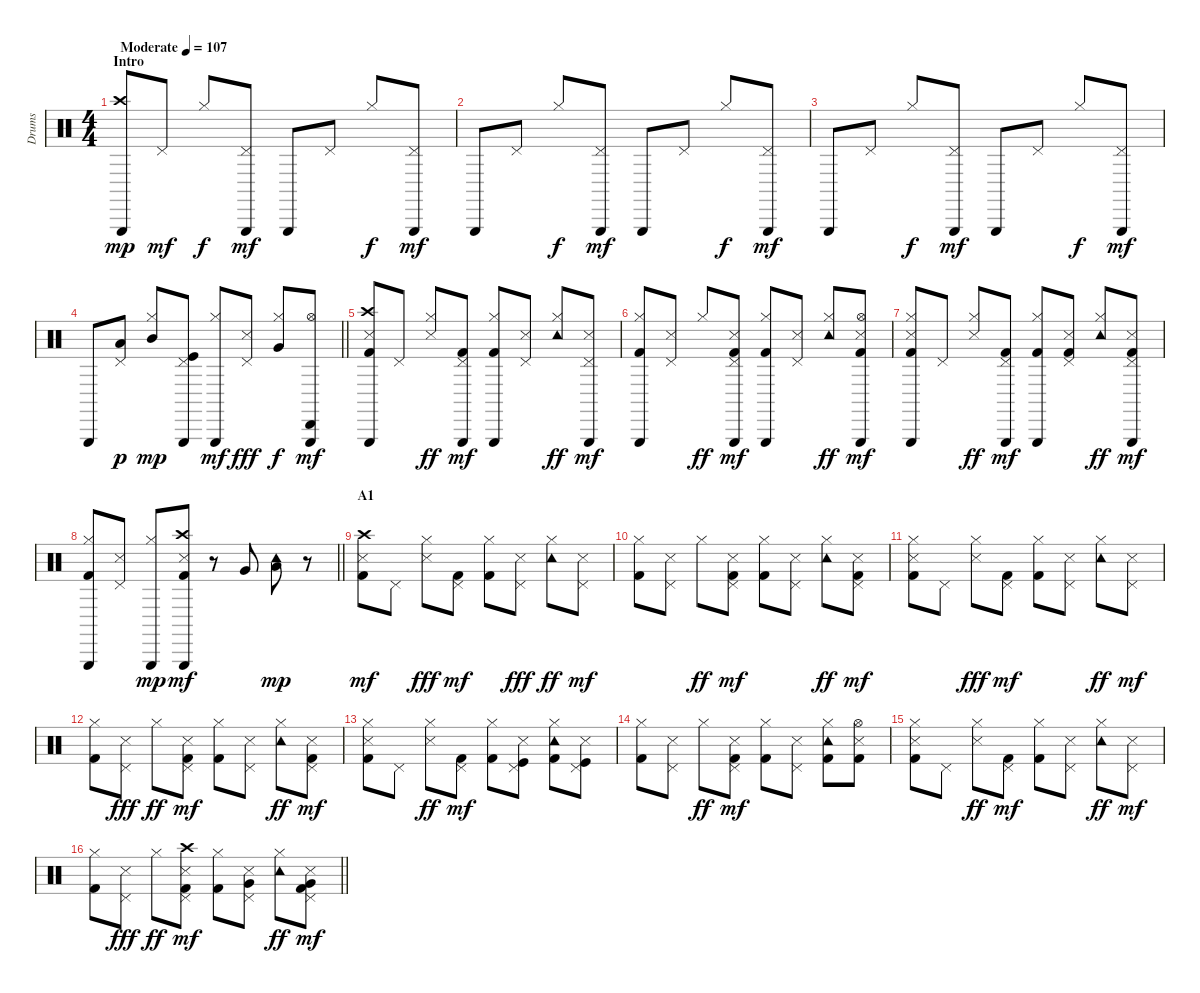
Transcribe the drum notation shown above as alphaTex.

\track ("Drums" "Drums") {instrument percussion}
\staff {score}
\articulation defaults
\ts (4 4)
\section ("" "Intro")
\tempo (107 "Moderate")
\clef neutral
\ks c
("Triangle (hit)" "Crash high (hit)").8{dy mp} "Pedal Hi-Hat (hit)".8{dy mf} "Hi-Hat (closed)".8{dy f} ("Pedal Hi-Hat (hit)" "Triangle (hit)").8{dy mf} "Triangle (hit)".8 "Pedal Hi-Hat (hit)".8 "Hi-Hat (closed)".8{dy f} ("Pedal Hi-Hat (hit)" "Triangle (hit)").8{dy mf} |
"Triangle (hit)".8 "Pedal Hi-Hat (hit)".8 "Hi-Hat (closed)".8{dy f} ("Pedal Hi-Hat (hit)" "Triangle (hit)").8{dy mf} "Triangle (hit)".8 "Pedal Hi-Hat (hit)".8 "Hi-Hat (closed)".8{dy f} ("Pedal Hi-Hat (hit)" "Triangle (hit)").8{dy mf} |
"Triangle (hit)".8 "Pedal Hi-Hat (hit)".8 "Hi-Hat (closed)".8{dy f} ("Pedal Hi-Hat (hit)" "Triangle (hit)").8{dy mf} "Triangle (hit)".8 "Pedal Hi-Hat (hit)".8 "Hi-Hat (closed)".8{dy f} ("Pedal Hi-Hat (hit)" "Triangle (hit)").8{dy mf} |
\barLineRight lightlight "Triangle (hit)".8
("Pedal Hi-Hat (hit)" "Low Tom (hit)").8{dy p} ("Hi-Hat (closed)" "Mid Tom (hit)").8{dy mp} ("Pedal Hi-Hat (hit)" "Triangle (hit)" "Kick (hit)").8 ("Triangle (hit)" "Hi-Hat (closed)").8{dy mf} ("Pedal Hi-Hat (hit)" "Snare (side stick) 3").8{dy fff} ("Hi-Hat (closed)" "Very Low Tom (hit)").8{dy f} ("Cabasa (hit)" "Triangle (hit)" "Hi-Hat (open)").8{dy mf} |
("Crash high (hit)" "Snare (side stick) 3" "Kick (hit) 2" "Triangle (hit)").8 "Pedal Hi-Hat (hit)".8 ("Hi-Hat (closed)" "Snare (side stick) 3").8{dy ff} ("Pedal Hi-Hat (hit)" "Kick (hit) 2" "Triangle (hit)").8{dy mf} ("Hi-Hat (closed)" "Kick (hit) 2" "Triangle (hit)").8 ("Pedal Hi-Hat (hit)" "Snare (side stick) 3").8 ("Hi-Hat (closed)" "Tambourine (hit)").8{dy ff} ("Pedal Hi-Hat (hit)" "Snare (side stick) 3" "Triangle (hit)").8{dy mf} |
("Hi-Hat (closed)" "Kick (hit) 2" "Triangle (hit)").8 ("Pedal Hi-Hat (hit)" "Snare (side stick) 3").8 "Hi-Hat (closed)".8{dy ff} ("Pedal Hi-Hat (hit)" "Snare (side stick) 3" "Kick (hit) 2" "Triangle (hit)").8{dy mf} ("Hi-Hat (closed)" "Kick (hit) 2" "Triangle (hit)").8 ("Pedal Hi-Hat (hit)" "Snare (side stick) 3").8 ("Hi-Hat (closed)" "Tambourine (hit)").8{dy ff} ("Hi-Hat (open)" "Snare (side stick) 3" "Kick (hit) 2" "Triangle (hit)").8{dy mf} |
("Hi-Hat (closed)" "Snare (side stick) 3" "Kick (hit) 2" "Triangle (hit)").8 "Pedal Hi-Hat (hit)".8 ("Hi-Hat (closed)" "Snare (side stick) 3").8{dy ff} ("Pedal Hi-Hat (hit)" "Kick (hit) 2" "Triangle (hit)").8{dy mf} ("Hi-Hat (closed)" "Kick (hit) 2" "Triangle (hit)").8 ("Pedal Hi-Hat (hit)" "Snare (side stick) 3" "Kick (hit) 2").8 ("Hi-Hat (closed)" "Tambourine (hit)").8{dy ff} ("Pedal Hi-Hat (hit)" "Snare (side stick) 3" "Kick (hit) 2" "Triangle (hit)").8{dy mf} |
\barLineRight lightlight
("Hi-Hat (closed)" "Kick (hit) 2" "Triangle (hit)").8 ("Pedal Hi-Hat (hit)" "Snare (side stick) 3").8 ("Hi-Hat (closed)" "Triangle (hit)").8{dy mp} ("Crash high (hit)" "Snare (side stick) 3" "Kick (hit) 2" "Triangle (hit)").8{dy mf} r.8 "Very Low Tom (hit)".8 ("Tambourine (hit)" "Low Floor Tom (hit)").8{dy mp} r.8 |
\section ("" "A1")
("Crash high (hit)" "Snare (side stick) 3" "Kick (hit) 2").8{dy mf} "Pedal Hi-Hat (hit)".8 ("Hi-Hat (closed)" "Snare (side stick) 3").8{dy fff} ("Pedal Hi-Hat (hit)" "Kick (hit) 2").8{dy mf} ("Hi-Hat (closed)" "Kick (hit) 2").8 ("Pedal Hi-Hat (hit)" "Snare (side stick) 3").8{dy fff} ("Hi-Hat (closed)" "Tambourine (hit)").8{dy ff} ("Pedal Hi-Hat (hit)" "Snare (side stick) 3").8{dy mf} |
("Hi-Hat (closed)" "Kick (hit) 2").8 ("Pedal Hi-Hat (hit)" "Snare (side stick) 3").8 "Hi-Hat (closed)".8{dy ff} ("Pedal Hi-Hat (hit)" "Snare (side stick) 3" "Kick (hit) 2").8{dy mf} ("Hi-Hat (closed)" "Kick (hit) 2").8 ("Pedal Hi-Hat (hit)" "Snare (side stick) 3").8 ("Hi-Hat (closed)" "Tambourine (hit)").8{dy ff} ("Pedal Hi-Hat (hit)" "Snare (side stick) 3" "Kick (hit) 2").8{dy mf} |
("Hi-Hat (closed)" "Snare (side stick) 3" "Kick (hit) 2").8 "Pedal Hi-Hat (hit)".8 ("Hi-Hat (closed)" "Snare (side stick) 3").8{dy fff} ("Pedal Hi-Hat (hit)" "Kick (hit) 2").8{dy mf} ("Hi-Hat (closed)" "Kick (hit) 2").8 ("Pedal Hi-Hat (hit)" "Snare (side stick) 3").8 ("Hi-Hat (closed)" "Tambourine (hit)").8{dy ff} ("Pedal Hi-Hat (hit)" "Snare (side stick) 3").8{dy mf} |
("Hi-Hat (closed)" "Kick (hit) 2").8 ("Pedal Hi-Hat (hit)" "Snare (side stick) 3").8{dy fff} "Hi-Hat (closed)".8{dy ff} ("Pedal Hi-Hat (hit)" "Snare (side stick) 3" "Kick (hit) 2").8{dy mf} ("Hi-Hat (closed)" "Kick (hit) 2").8 ("Pedal Hi-Hat (hit)" "Snare (side stick) 3").8 ("Hi-Hat (closed)" "Tambourine (hit)").8{dy ff} ("Pedal Hi-Hat (hit)" "Snare (side stick) 3" "Kick (hit) 2").8{dy mf} |
("Hi-Hat (closed)" "Snare (side stick) 3" "Kick (hit) 2").8 "Pedal Hi-Hat (hit)".8 ("Hi-Hat (closed)" "Snare (side stick) 3").8{dy ff} ("Pedal Hi-Hat (hit)" "Kick (hit) 2").8{dy mf} ("Hi-Hat (closed)" "Kick (hit) 2").8 ("Pedal Hi-Hat (hit)" "Snare (side stick) 3" "Kick (hit)").8 ("Hi-Hat (closed)" "Tambourine (hit)" "Kick (hit) 2").8 ("Pedal Hi-Hat (hit)" "Snare (side stick) 3" "Kick (hit)").8 |
("Hi-Hat (closed)" "Kick (hit) 2").8 ("Pedal Hi-Hat (hit)" "Snare (side stick) 3").8 "Hi-Hat (closed)".8{dy ff} ("Pedal Hi-Hat (hit)" "Snare (side stick) 3" "Kick (hit) 2").8{dy mf} ("Hi-Hat (closed)" "Kick (hit) 2").8 ("Pedal Hi-Hat (hit)" "Snare (side stick) 3").8 ("Hi-Hat (closed)" "Tambourine (hit)" "Kick (hit) 2").8 ("Hi-Hat (open)" "Snare (side stick) 3" "Kick (hit) 2").8 |
("Hi-Hat (closed)" "Snare (side stick) 3" "Kick (hit) 2").8 "Pedal Hi-Hat (hit)".8 ("Hi-Hat (closed)" "Snare (side stick) 3").8{dy ff} ("Pedal Hi-Hat (hit)" "Kick (hit) 2").8{dy mf} ("Hi-Hat (closed)" "Kick (hit) 2").8 ("Pedal Hi-Hat (hit)" "Snare (side stick) 3").8 ("Hi-Hat (closed)" "Tambourine (hit)").8{dy ff} ("Pedal Hi-Hat (hit)" "Snare (side stick) 3").8{dy mf} |
\barLineRight lightlight
("Hi-Hat (closed)" "Kick (hit) 2").8 ("Pedal Hi-Hat (hit)" "Snare (side stick) 3").8{dy fff} "Hi-Hat (closed)".8{dy ff} ("Pedal Hi-Hat (hit)" "Crash high (hit)" "Snare (side stick) 3" "Kick (hit) 2").8{dy mf} ("Hi-Hat (closed)" "Kick (hit) 2").8 ("Pedal Hi-Hat (hit)" "Very Low Tom (hit)" "Snare (side stick) 3").8 ("Hi-Hat (closed)" "Tambourine (hit)").8{dy ff} ("Pedal Hi-Hat (hit)" "Very Low Tom (hit)" "Snare (side stick) 3" "Kick (hit) 2").8{dy mf}
